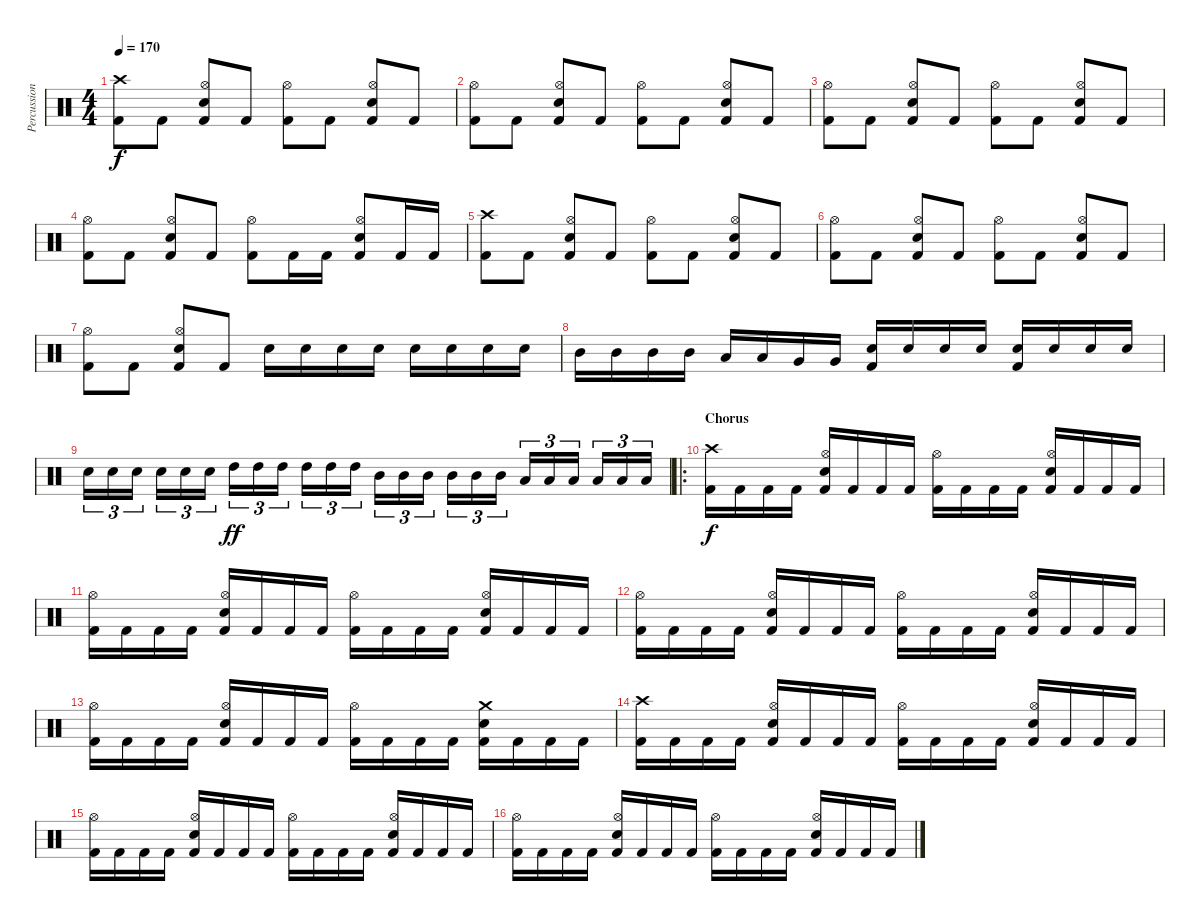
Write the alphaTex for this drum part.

\track ("Percussion" "Percussion") {instrument percussion}
\staff {score}
\articulation defaults
\ts (4 4)
\tempo 170
\clef neutral
\ks c
("Crash high (hit)" "Kick (hit) 2").8{dy f} "Kick (hit) 2".8 ("Hi-Hat (open)" "Electric Snare (hit)" "Kick (hit) 2").8 "Kick (hit) 2".8 ("Hi-Hat (open)" "Kick (hit) 2").8 "Kick (hit) 2".8 ("Hi-Hat (open)" "Electric Snare (hit)" "Kick (hit) 2").8 "Kick (hit) 2".8 |
("Hi-Hat (open)" "Kick (hit) 2").8 "Kick (hit) 2".8 ("Hi-Hat (open)" "Electric Snare (hit)" "Kick (hit) 2").8 "Kick (hit) 2".8 ("Hi-Hat (open)" "Kick (hit) 2").8 "Kick (hit) 2".8 ("Hi-Hat (open)" "Electric Snare (hit)" "Kick (hit) 2").8 "Kick (hit) 2".8 |
("Hi-Hat (open)" "Kick (hit) 2").8 "Kick (hit) 2".8 ("Hi-Hat (open)" "Electric Snare (hit)" "Kick (hit) 2").8 "Kick (hit) 2".8 ("Hi-Hat (open)" "Kick (hit) 2").8 "Kick (hit) 2".8 ("Hi-Hat (open)" "Electric Snare (hit)" "Kick (hit) 2").8 "Kick (hit) 2".8 |
("Hi-Hat (open)" "Kick (hit) 2").8 "Kick (hit) 2".8 ("Hi-Hat (open)" "Electric Snare (hit)" "Kick (hit) 2").8 "Kick (hit) 2".8 ("Hi-Hat (open)" "Kick (hit) 2").8 "Kick (hit) 2".16 "Kick (hit) 2".16 ("Hi-Hat (open)" "Electric Snare (hit)" "Kick (hit) 2").8 "Kick (hit) 2".16 "Kick (hit) 2".16 |
("Crash high (hit)" "Kick (hit) 2").8 "Kick (hit) 2".8 ("Hi-Hat (open)" "Electric Snare (hit)" "Kick (hit) 2").8 "Kick (hit) 2".8 ("Hi-Hat (open)" "Kick (hit) 2").8 "Kick (hit) 2".8 ("Hi-Hat (open)" "Electric Snare (hit)" "Kick (hit) 2").8 "Kick (hit) 2".8 |
("Hi-Hat (open)" "Kick (hit) 2").8 "Kick (hit) 2".8 ("Hi-Hat (open)" "Electric Snare (hit)" "Kick (hit) 2").8 "Kick (hit) 2".8 ("Hi-Hat (open)" "Kick (hit) 2").8 "Kick (hit) 2".8 ("Hi-Hat (open)" "Electric Snare (hit)" "Kick (hit) 2").8 "Kick (hit) 2".8 |
("Hi-Hat (open)" "Kick (hit) 2").8 "Kick (hit) 2".8 ("Hi-Hat (open)" "Electric Snare (hit)" "Kick (hit) 2").8 "Kick (hit) 2".8 "Electric Snare (hit)".16 "Electric Snare (hit)".16 "Electric Snare (hit)".16 "Electric Snare (hit)".16 "Electric Snare (hit)".16 "Electric Snare (hit)".16 "Electric Snare (hit)".16 "Electric Snare (hit)".16 |
"Mid Tom (hit)".16 "Mid Tom (hit)".16 "Mid Tom (hit)".16 "Mid Tom (hit)".16 "Low Tom (hit)".16 "Low Tom (hit)".16 "Very Low Tom (hit)".16 "Very Low Tom (hit)".16 ("Electric Snare (hit)" "Kick (hit) 2").16 "Electric Snare (hit)".16 "Electric Snare (hit)".16 "Electric Snare (hit)".16 ("Electric Snare (hit)" "Kick (hit) 2").16 "Electric Snare (hit)".16 "Electric Snare (hit)".16 "Electric Snare (hit)".16 |
"Electric Snare (hit)".16{tu (3 2)} "Electric Snare (hit)".16{tu (3 2)} "Electric Snare (hit)".16{tu (3 2)} "Electric Snare (hit)".16{tu (3 2)} "Electric Snare (hit)".16{tu (3 2)} "Electric Snare (hit)".16{tu (3 2)} "High Tom (hit)".16{tu (3 2) dy ff} "High Tom (hit)".16{tu (3 2)} "High Tom (hit)".16{tu (3 2)} "High Tom (hit)".16{tu (3 2)} "High Tom (hit)".16{tu (3 2)} "High Tom (hit)".16{tu (3 2)} "Mid Tom (hit)".16{tu (3 2)} "Mid Tom (hit)".16{tu (3 2)} "Mid Tom (hit)".16{tu (3 2)} "Mid Tom (hit)".16{tu (3 2)} "Mid Tom (hit)".16{tu (3 2)} "Mid Tom (hit)".16{tu (3 2)} "Low Tom (hit)".16{tu (3 2)} "Low Tom (hit)".16{tu (3 2)} "Low Tom (hit)".16{tu (3 2)} "Low Tom (hit)".16{tu (3 2)} "Low Tom (hit)".16{tu (3 2)} "Low Tom (hit)".16{tu (3 2)} |
\ro
\section ("" "Chorus")
("Crash high (hit)" "Kick (hit) 2").16{dy f} "Kick (hit) 2".16 "Kick (hit) 2".16 "Kick (hit) 2".16 ("Hi-Hat (open)" "Electric Snare (hit)" "Kick (hit) 2").16 "Kick (hit) 2".16 "Kick (hit) 2".16 "Kick (hit) 2".16 ("Hi-Hat (open)" "Kick (hit) 2").16 "Kick (hit) 2".16 "Kick (hit) 2".16 "Kick (hit) 2".16 ("Hi-Hat (open)" "Electric Snare (hit)" "Kick (hit) 2").16 "Kick (hit) 2".16 "Kick (hit) 2".16 "Kick (hit) 2".16 |
("Hi-Hat (open)" "Kick (hit) 2").16 "Kick (hit) 2".16 "Kick (hit) 2".16 "Kick (hit) 2".16 ("Hi-Hat (open)" "Electric Snare (hit)" "Kick (hit) 2").16 "Kick (hit) 2".16 "Kick (hit) 2".16 "Kick (hit) 2".16 ("Hi-Hat (open)" "Kick (hit) 2").16 "Kick (hit) 2".16 "Kick (hit) 2".16 "Kick (hit) 2".16 ("Hi-Hat (open)" "Electric Snare (hit)" "Kick (hit) 2").16 "Kick (hit) 2".16 "Kick (hit) 2".16 "Kick (hit) 2".16 |
("Hi-Hat (open)" "Kick (hit) 2").16 "Kick (hit) 2".16 "Kick (hit) 2".16 "Kick (hit) 2".16 ("Hi-Hat (open)" "Electric Snare (hit)" "Kick (hit) 2").16 "Kick (hit) 2".16 "Kick (hit) 2".16 "Kick (hit) 2".16 ("Hi-Hat (open)" "Kick (hit) 2").16 "Kick (hit) 2".16 "Kick (hit) 2".16 "Kick (hit) 2".16 ("Hi-Hat (open)" "Electric Snare (hit)" "Kick (hit) 2").16 "Kick (hit) 2".16 "Kick (hit) 2".16 "Kick (hit) 2".16 |
("Hi-Hat (open)" "Kick (hit) 2").16 "Kick (hit) 2".16 "Kick (hit) 2".16 "Kick (hit) 2".16 ("Hi-Hat (open)" "Electric Snare (hit)" "Kick (hit) 2").16 "Kick (hit) 2".16 "Kick (hit) 2".16 "Kick (hit) 2".16 ("Hi-Hat (open)" "Kick (hit) 2").16 "Kick (hit) 2".16 "Kick (hit) 2".16 "Kick (hit) 2".16 ("Crash medium (hit)" "Electric Snare (hit)" "Kick (hit) 2").16 "Kick (hit) 2".16 "Kick (hit) 2".16 "Kick (hit) 2".16 |
("Crash high (hit)" "Kick (hit) 2").16 "Kick (hit) 2".16 "Kick (hit) 2".16 "Kick (hit) 2".16 ("Hi-Hat (open)" "Electric Snare (hit)" "Kick (hit) 2").16 "Kick (hit) 2".16 "Kick (hit) 2".16 "Kick (hit) 2".16 ("Hi-Hat (open)" "Kick (hit) 2").16 "Kick (hit) 2".16 "Kick (hit) 2".16 "Kick (hit) 2".16 ("Hi-Hat (open)" "Electric Snare (hit)" "Kick (hit) 2").16 "Kick (hit) 2".16 "Kick (hit) 2".16 "Kick (hit) 2".16 |
("Hi-Hat (open)" "Kick (hit) 2").16 "Kick (hit) 2".16 "Kick (hit) 2".16 "Kick (hit) 2".16 ("Hi-Hat (open)" "Electric Snare (hit)" "Kick (hit) 2").16 "Kick (hit) 2".16 "Kick (hit) 2".16 "Kick (hit) 2".16 ("Hi-Hat (open)" "Kick (hit) 2").16 "Kick (hit) 2".16 "Kick (hit) 2".16 "Kick (hit) 2".16 ("Hi-Hat (open)" "Electric Snare (hit)" "Kick (hit) 2").16 "Kick (hit) 2".16 "Kick (hit) 2".16 "Kick (hit) 2".16 |
("Hi-Hat (open)" "Kick (hit) 2").16 "Kick (hit) 2".16 "Kick (hit) 2".16 "Kick (hit) 2".16 ("Hi-Hat (open)" "Electric Snare (hit)" "Kick (hit) 2").16 "Kick (hit) 2".16 "Kick (hit) 2".16 "Kick (hit) 2".16 ("Hi-Hat (open)" "Kick (hit) 2").16 "Kick (hit) 2".16 "Kick (hit) 2".16 "Kick (hit) 2".16 ("Hi-Hat (open)" "Electric Snare (hit)" "Kick (hit) 2").16 "Kick (hit) 2".16 "Kick (hit) 2".16 "Kick (hit) 2".16
